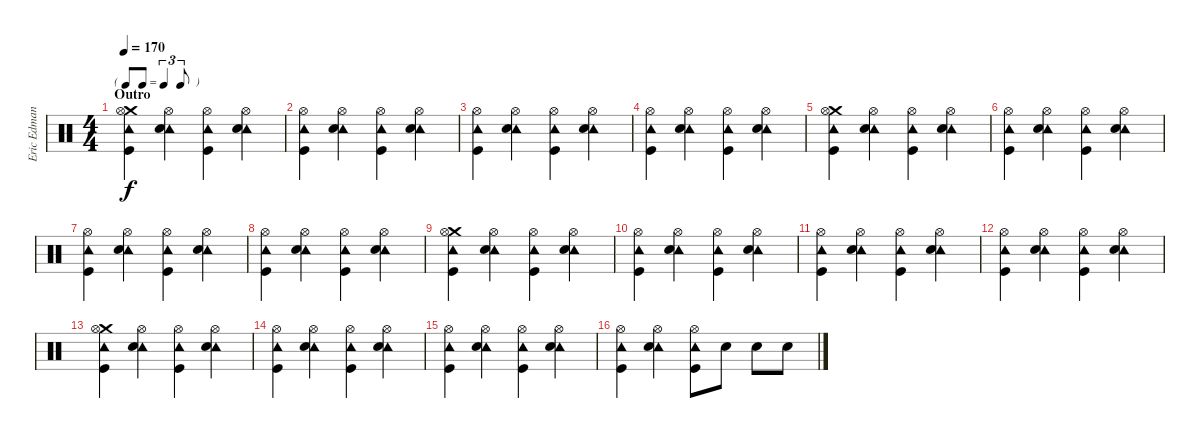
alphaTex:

\track ("Eric Edman - Drums" "Eric Edman") {instrument percussion}
\staff {score}
\articulation defaults
\ts (4 4)
\tf triplet8th
\section ("" "Outro")
\tempo 170
\clef neutral
\ks c
("Crash medium (hit)" "Tambourine (hit)" "Kick (hit)" "Hi-Hat (open)").4{dy f} ("Tambourine (hit)" "Snare (hit) 2" "Hi-Hat (open)").4 ("Tambourine (hit)" "Kick (hit)" "Hi-Hat (open)").4 ("Tambourine (hit)" "Snare (hit) 2" "Hi-Hat (open)").4 |
("Tambourine (hit)" "Kick (hit)" "Hi-Hat (open)").4 ("Tambourine (hit)" "Snare (hit) 2" "Hi-Hat (open)").4 ("Tambourine (hit)" "Kick (hit)" "Hi-Hat (open)").4 ("Tambourine (hit)" "Snare (hit) 2" "Hi-Hat (open)").4 |
("Tambourine (hit)" "Kick (hit)" "Hi-Hat (open)").4 ("Tambourine (hit)" "Snare (hit) 2" "Hi-Hat (open)").4 ("Tambourine (hit)" "Kick (hit)" "Hi-Hat (open)").4 ("Tambourine (hit)" "Snare (hit) 2" "Hi-Hat (open)").4 |
("Tambourine (hit)" "Kick (hit)" "Hi-Hat (open)").4 ("Tambourine (hit)" "Snare (hit) 2" "Hi-Hat (open)").4 ("Tambourine (hit)" "Kick (hit)" "Hi-Hat (open)").4 ("Tambourine (hit)" "Snare (hit) 2" "Hi-Hat (open)").4 |
("Crash medium (hit)" "Tambourine (hit)" "Kick (hit)" "Hi-Hat (open)").4 ("Tambourine (hit)" "Snare (hit) 2" "Hi-Hat (open)").4 ("Tambourine (hit)" "Kick (hit)" "Hi-Hat (open)").4 ("Tambourine (hit)" "Snare (hit) 2" "Hi-Hat (open)").4 |
("Tambourine (hit)" "Kick (hit)" "Hi-Hat (open)").4 ("Tambourine (hit)" "Snare (hit) 2" "Hi-Hat (open)").4 ("Tambourine (hit)" "Kick (hit)" "Hi-Hat (open)").4 ("Tambourine (hit)" "Snare (hit) 2" "Hi-Hat (open)").4 |
("Tambourine (hit)" "Kick (hit)" "Hi-Hat (open)").4 ("Tambourine (hit)" "Snare (hit) 2" "Hi-Hat (open)").4 ("Tambourine (hit)" "Kick (hit)" "Hi-Hat (open)").4 ("Tambourine (hit)" "Snare (hit) 2" "Hi-Hat (open)").4 |
("Tambourine (hit)" "Kick (hit)" "Hi-Hat (open)").4 ("Tambourine (hit)" "Snare (hit) 2" "Hi-Hat (open)").4 ("Tambourine (hit)" "Kick (hit)" "Hi-Hat (open)").4 ("Tambourine (hit)" "Snare (hit) 2" "Hi-Hat (open)").4 |
("Crash medium (hit)" "Tambourine (hit)" "Kick (hit)" "Hi-Hat (open)").4 ("Tambourine (hit)" "Snare (hit) 2" "Hi-Hat (open)").4 ("Tambourine (hit)" "Kick (hit)" "Hi-Hat (open)").4 ("Tambourine (hit)" "Snare (hit) 2" "Hi-Hat (open)").4 |
("Tambourine (hit)" "Kick (hit)" "Hi-Hat (open)").4 ("Tambourine (hit)" "Snare (hit) 2" "Hi-Hat (open)").4 ("Tambourine (hit)" "Kick (hit)" "Hi-Hat (open)").4 ("Tambourine (hit)" "Snare (hit) 2" "Hi-Hat (open)").4 |
("Tambourine (hit)" "Kick (hit)" "Hi-Hat (open)").4 ("Tambourine (hit)" "Snare (hit) 2" "Hi-Hat (open)").4 ("Tambourine (hit)" "Kick (hit)" "Hi-Hat (open)").4 ("Tambourine (hit)" "Snare (hit) 2" "Hi-Hat (open)").4 |
("Tambourine (hit)" "Kick (hit)" "Hi-Hat (open)").4 ("Tambourine (hit)" "Snare (hit) 2" "Hi-Hat (open)").4 ("Tambourine (hit)" "Kick (hit)" "Hi-Hat (open)").4 ("Tambourine (hit)" "Snare (hit) 2" "Hi-Hat (open)").4 |
("Crash medium (hit)" "Tambourine (hit)" "Kick (hit)" "Hi-Hat (open)").4 ("Tambourine (hit)" "Snare (hit) 2" "Hi-Hat (open)").4 ("Tambourine (hit)" "Kick (hit)" "Hi-Hat (open)").4 ("Tambourine (hit)" "Snare (hit) 2" "Hi-Hat (open)").4 |
("Tambourine (hit)" "Kick (hit)" "Hi-Hat (open)").4 ("Tambourine (hit)" "Snare (hit) 2" "Hi-Hat (open)").4 ("Tambourine (hit)" "Kick (hit)" "Hi-Hat (open)").4 ("Tambourine (hit)" "Snare (hit) 2" "Hi-Hat (open)").4 |
("Tambourine (hit)" "Kick (hit)" "Hi-Hat (open)").4 ("Tambourine (hit)" "Snare (hit) 2" "Hi-Hat (open)").4 ("Tambourine (hit)" "Kick (hit)" "Hi-Hat (open)").4 ("Tambourine (hit)" "Snare (hit) 2" "Hi-Hat (open)").4 |
("Tambourine (hit)" "Kick (hit)" "Hi-Hat (open)").4 ("Tambourine (hit)" "Snare (hit) 2" "Hi-Hat (open)").4 ("Tambourine (hit)" "Kick (hit)" "Hi-Hat (open)").8 "Snare (hit) 2".8 "Snare (hit) 2".8 "Snare (hit) 2".8
